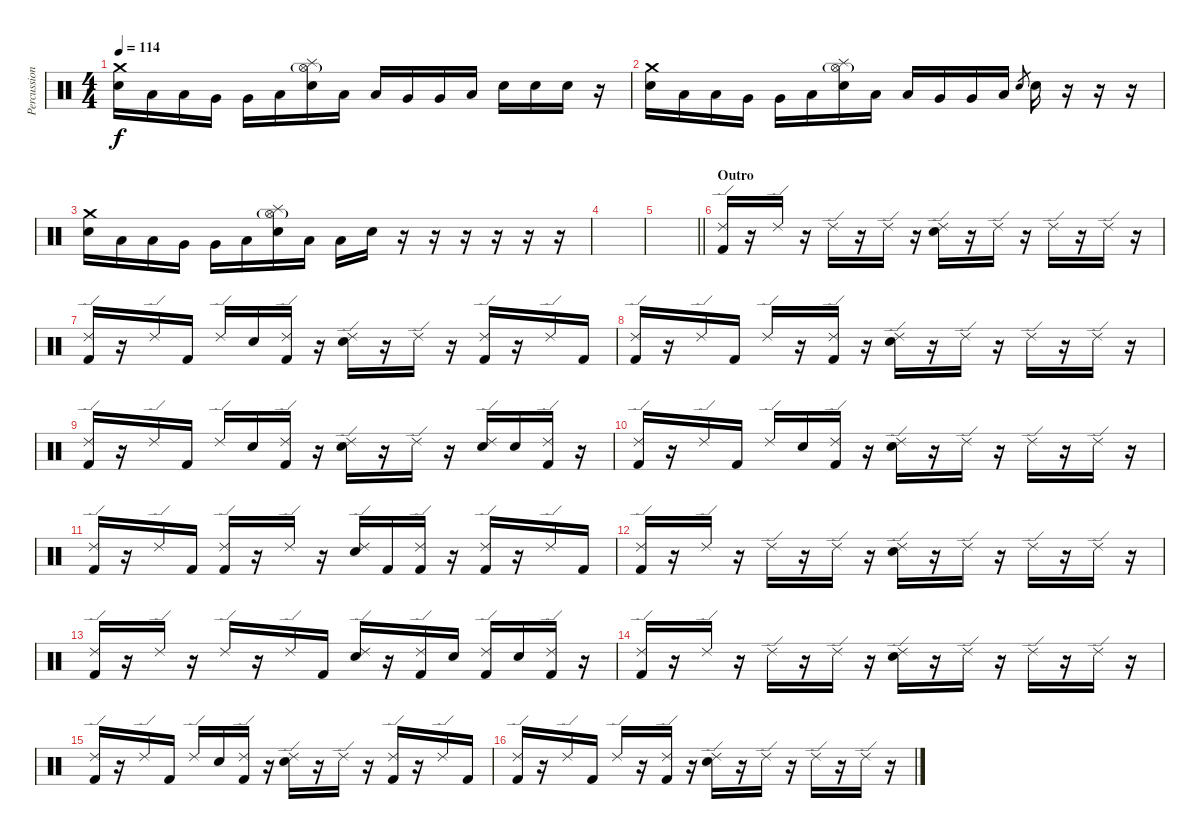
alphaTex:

\track ("Percussion" "Percussion") {instrument percussion}
\staff {score}
\articulation defaults
\ts (4 4)
\tempo 114
\clef neutral
\ks c
("Crash medium (hit)" "Electric Snare (hit)").16{dy f} "Low Tom (hit)".16 "Low Tom (hit)".16 "Very Low Tom (hit)".16 "Very Low Tom (hit)".16 "Low Floor Tom (hit)".16 ("Hi-Hat (open)"{g} "Splash (hit)" "Electric Snare (hit)").16 "Low Tom (hit)".16 "Low Tom (hit)".16 "Very Low Tom (hit)".16 "Very Low Tom (hit)".16 "Low Floor Tom (hit)".16 "Electric Snare (hit)".16 "Electric Snare (hit)".16 "Electric Snare (hit)".16 r.16 |
("Crash medium (hit)" "Electric Snare (hit)").16 "Low Tom (hit)".16 "Low Tom (hit)".16 "Very Low Tom (hit)".16 "Very Low Tom (hit)".16 "Low Floor Tom (hit)".16 ("Hi-Hat (open)"{g} "Splash (hit)" "Electric Snare (hit)").16 "Low Tom (hit)".16 "Low Tom (hit)".16 "Very Low Tom (hit)".16 "Very Low Tom (hit)".16 "Low Floor Tom (hit)".16 "Electric Snare (hit)".8{gr} "Electric Snare (hit)".16 r.16 r.16 r.16 |
("Crash medium (hit)" "Electric Snare (hit)").16 "Low Tom (hit)".16 "Low Tom (hit)".16 "Very Low Tom (hit)".16 "Very Low Tom (hit)".16 "Low Floor Tom (hit)".16 ("Hi-Hat (open)"{g} "Splash (hit)" "Electric Snare (hit)").16 "Low Tom (hit)".16 "Low Tom (hit)".16 "Electric Snare (hit)".16 r.16 r.16 r.16 r.16 r.16 r.16 |
|
\barLineRight lightlight
|
\section ("" "Outro")
("Ride (edge) 2" "Kick (hit) 2").16 r.16 "Ride (edge) 2".16 r.16 "Ride (edge) 2".16 r.16 "Ride (edge) 2".16 r.16 ("Ride (edge) 2" "Electric Snare (hit)").16 r.16 "Ride (edge) 2".16 r.16 "Ride (edge) 2".16 r.16 "Ride (edge) 2".16 r.16 |
("Ride (edge) 2" "Kick (hit) 2").16 r.16 "Ride (edge) 2".16 "Kick (hit) 2".16 "Ride (edge) 2".16 "Electric Snare (hit)".16 ("Ride (edge) 2" "Kick (hit) 2").16 r.16 ("Ride (edge) 2" "Electric Snare (hit)").16 r.16 "Ride (edge) 2".16 r.16 ("Ride (edge) 2" "Kick (hit) 2").16 r.16 "Ride (edge) 2".16 "Kick (hit) 2".16 |
("Ride (edge) 2" "Kick (hit) 2").16 r.16 "Ride (edge) 2".16 "Kick (hit) 2".16 "Ride (edge) 2".16 r.16 ("Ride (edge) 2" "Kick (hit) 2").16 r.16 ("Ride (edge) 2" "Electric Snare (hit)").16 r.16 "Ride (edge) 2".16 r.16 "Ride (edge) 2".16 r.16 "Ride (edge) 2".16 r.16 |
("Ride (edge) 2" "Kick (hit) 2").16 r.16 "Ride (edge) 2".16 "Kick (hit) 2".16 "Ride (edge) 2".16 "Electric Snare (hit)".16 ("Ride (edge) 2" "Kick (hit) 2").16 r.16 ("Ride (edge) 2" "Electric Snare (hit)").16 r.16 "Ride (edge) 2".16 r.16 ("Ride (edge) 2" "Electric Snare (hit)").16 "Electric Snare (hit)".16 ("Ride (edge) 2" "Kick (hit) 2").16 r.16 |
("Ride (edge) 2" "Kick (hit) 2").16 r.16 "Ride (edge) 2".16 "Kick (hit) 2".16 "Ride (edge) 2".16 "Electric Snare (hit)".16 ("Ride (edge) 2" "Kick (hit) 2").16 r.16 ("Ride (edge) 2" "Electric Snare (hit)").16 r.16 "Ride (edge) 2".16 r.16 "Ride (edge) 2".16 r.16 "Ride (edge) 2".16 r.16 |
("Ride (edge) 2" "Kick (hit) 2").16 r.16 "Ride (edge) 2".16 "Kick (hit) 2".16 ("Ride (edge) 2" "Kick (hit) 2").16 r.16 "Ride (edge) 2".16 r.16 ("Ride (edge) 2" "Electric Snare (hit)").16 "Kick (hit) 2".16 ("Ride (edge) 2" "Kick (hit) 2").16 r.16 ("Ride (edge) 2" "Kick (hit) 2").16 r.16 "Ride (edge) 2".16 "Kick (hit) 2".16 |
("Ride (edge) 2" "Kick (hit) 2").16 r.16 "Ride (edge) 2".16 r.16 "Ride (edge) 2".16 r.16 "Ride (edge) 2".16 r.16 ("Ride (edge) 2" "Electric Snare (hit)").16 r.16 "Ride (edge) 2".16 r.16 "Ride (edge) 2".16 r.16 "Ride (edge) 2".16 r.16 |
("Ride (edge) 2" "Kick (hit) 2").16 r.16 "Ride (edge) 2".16 r.16 "Ride (edge) 2".16 r.16 "Ride (edge) 2".16 "Kick (hit) 2".16 ("Ride (edge) 2" "Electric Snare (hit)").16 r.16 ("Ride (edge) 2" "Kick (hit) 2").16 "Electric Snare (hit)".16 ("Ride (edge) 2" "Kick (hit) 2").16 "Electric Snare (hit)".16 ("Ride (edge) 2" "Kick (hit) 2").16 r.16 |
("Ride (edge) 2" "Kick (hit) 2").16{volume 0} r.16 "Ride (edge) 2".16 r.16 "Ride (edge) 2".16 r.16 "Ride (edge) 2".16 r.16 ("Ride (edge) 2" "Electric Snare (hit)").16 r.16 "Ride (edge) 2".16 r.16 "Ride (edge) 2".16 r.16 "Ride (edge) 2".16 r.16 |
("Ride (edge) 2" "Kick (hit) 2").16 r.16 "Ride (edge) 2".16 "Kick (hit) 2".16 "Ride (edge) 2".16 "Electric Snare (hit)".16 ("Ride (edge) 2" "Kick (hit) 2").16 r.16 ("Ride (edge) 2" "Electric Snare (hit)").16 r.16 "Ride (edge) 2".16 r.16 ("Ride (edge) 2" "Kick (hit) 2").16 r.16 "Ride (edge) 2".16 "Kick (hit) 2".16 |
("Ride (edge) 2" "Kick (hit) 2").16 r.16 "Ride (edge) 2".16 "Kick (hit) 2".16 "Ride (edge) 2".16 r.16 ("Ride (edge) 2" "Kick (hit) 2").16 r.16 ("Ride (edge) 2" "Electric Snare (hit)").16 r.16 "Ride (edge) 2".16 r.16 "Ride (edge) 2".16 r.16 "Ride (edge) 2".16 r.16
